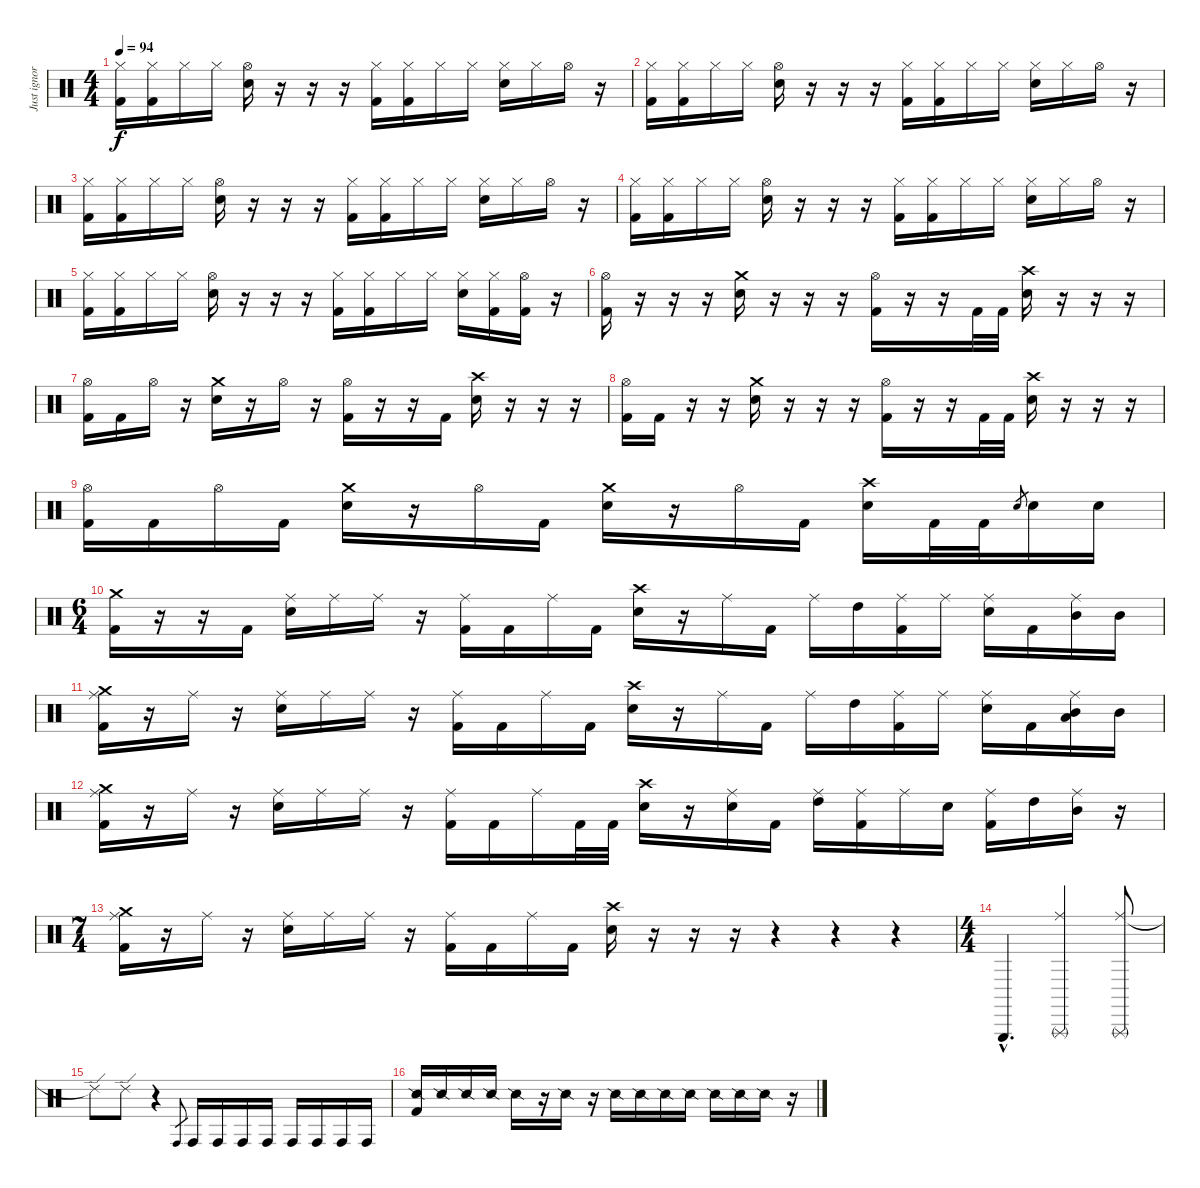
\track ("Just ignore this track" "Just ignor") {instrument percussion}
\staff {score}
\articulation defaults
\ts (4 4)
\tempo 94
\clef neutral
\ks c
("Hi-Hat (closed)" "Kick (hit) 2").16{dy f} ("Hi-Hat (closed)" "Kick (hit) 2").16 "Hi-Hat (closed)".16 "Hi-Hat (closed)".16 ("Hi-Hat (open)" "Electric Snare (hit)").16 r.16 r.16 r.16 ("Hi-Hat (closed)" "Kick (hit) 2").16 ("Hi-Hat (closed)" "Kick (hit) 2").16 "Hi-Hat (closed)".16 "Hi-Hat (closed)".16 ("Hi-Hat (closed)" "Electric Snare (hit)").16 "Hi-Hat (closed)".16 "Hi-Hat (open)".16 r.16 |
("Hi-Hat (closed)" "Kick (hit) 2").16 ("Hi-Hat (closed)" "Kick (hit) 2").16 "Hi-Hat (closed)".16 "Hi-Hat (closed)".16 ("Hi-Hat (open)" "Electric Snare (hit)").16 r.16 r.16 r.16 ("Hi-Hat (closed)" "Kick (hit) 2").16 ("Hi-Hat (closed)" "Kick (hit) 2").16 "Hi-Hat (closed)".16 "Hi-Hat (closed)".16 ("Hi-Hat (closed)" "Electric Snare (hit)").16 "Hi-Hat (closed)".16 "Hi-Hat (open)".16 r.16 |
("Hi-Hat (closed)" "Kick (hit) 2").16 ("Hi-Hat (closed)" "Kick (hit) 2").16 "Hi-Hat (closed)".16 "Hi-Hat (closed)".16 ("Hi-Hat (open)" "Electric Snare (hit)").16 r.16 r.16 r.16 ("Hi-Hat (closed)" "Kick (hit) 2").16 ("Hi-Hat (closed)" "Kick (hit) 2").16 "Hi-Hat (closed)".16 "Hi-Hat (closed)".16 ("Hi-Hat (closed)" "Electric Snare (hit)").16 "Hi-Hat (closed)".16 "Hi-Hat (open)".16 r.16 |
("Hi-Hat (closed)" "Kick (hit) 2").16 ("Hi-Hat (closed)" "Kick (hit) 2").16 "Hi-Hat (closed)".16 "Hi-Hat (closed)".16 ("Hi-Hat (open)" "Electric Snare (hit)").16 r.16 r.16 r.16 ("Hi-Hat (closed)" "Kick (hit) 2").16 ("Hi-Hat (closed)" "Kick (hit) 2").16 "Hi-Hat (closed)".16 "Hi-Hat (closed)".16 ("Hi-Hat (closed)" "Electric Snare (hit)").16 "Hi-Hat (closed)".16 "Hi-Hat (open)".16 r.16 |
("Hi-Hat (closed)" "Kick (hit) 2").16 ("Hi-Hat (closed)" "Kick (hit) 2").16 "Hi-Hat (closed)".16 "Hi-Hat (closed)".16 ("Hi-Hat (open)" "Electric Snare (hit)").16 r.16 r.16 r.16 ("Hi-Hat (closed)" "Kick (hit) 2").16 ("Hi-Hat (closed)" "Kick (hit) 2").16 "Hi-Hat (closed)".16 "Hi-Hat (closed)".16 ("Hi-Hat (closed)" "Electric Snare (hit)").16 ("Hi-Hat (closed)" "Kick (hit) 2").16 ("Hi-Hat (open)" "Kick (hit) 2").16 r.16 |
("Hi-Hat (open)" "Kick (hit) 2").16 r.16 r.16 r.16 ("Crash medium (hit)" "Electric Snare (hit)").16 r.16 r.16 r.16 ("Hi-Hat (open)" "Kick (hit) 2").16 r.16 r.16 "Kick (hit) 2".32 "Kick (hit) 2".32 ("Crash high (hit)" "Electric Snare (hit)").16 r.16 r.16 r.16 |
("Hi-Hat (open)" "Kick (hit) 2").16 "Kick (hit) 2".16 "Hi-Hat (open)".16 r.16 ("Crash medium (hit)" "Electric Snare (hit)").16 r.16 "Hi-Hat (open)".16 r.16 ("Hi-Hat (open)" "Kick (hit) 2").16 r.16 r.16 "Kick (hit) 2".16 ("Crash high (hit)" "Electric Snare (hit)").16 r.16 r.16 r.16 |
("Hi-Hat (open)" "Kick (hit) 2").16 "Kick (hit) 2".16 r.16 r.16 ("Crash medium (hit)" "Electric Snare (hit)").16 r.16 r.16 r.16 ("Hi-Hat (open)" "Kick (hit) 2").16 r.16 r.16 "Kick (hit) 2".32 "Kick (hit) 2".32 ("Crash high (hit)" "Electric Snare (hit)").16 r.16 r.16 r.16 |
("Hi-Hat (open)" "Kick (hit) 2").16 "Kick (hit) 2".16 "Hi-Hat (open)".16 "Kick (hit) 2".16 ("Crash medium (hit)" "Electric Snare (hit)").16 r.16 "Hi-Hat (open)".16 "Kick (hit) 2".16 ("Crash medium (hit)" "Electric Snare (hit)").16 r.16 "Hi-Hat (open)".16 "Kick (hit) 2".16 ("Crash high (hit)" "Electric Snare (hit)").16 "Kick (hit) 2".32 "Kick (hit) 2".32 "Electric Snare (hit)".8{gr} "Electric Snare (hit)".16 "Electric Snare (hit)".16 |
\ts (6 4)
("Crash medium (hit)" "Kick (hit) 2").16 r.16 r.16 "Kick (hit) 2".16 ("Ride (middle)" "Electric Snare (hit)").16 "Ride (middle)".16 "Ride (middle)".16 r.16 ("Ride (middle)" "Kick (hit) 2").16 "Kick (hit) 2".16 "Ride (middle)".16 "Kick (hit) 2".16 ("Crash high (hit)" "Electric Snare (hit)").16 r.16 "Ride (middle)".16 "Kick (hit) 2".16 "Ride (middle)".16 "High Tom (hit)".16 ("Ride (middle)" "Kick (hit) 2").16 "Ride (middle)".16 ("Ride (middle)" "Electric Snare (hit)").16 "Kick (hit) 2".16 ("Ride (middle)" "Mid Tom (hit)").16 "Mid Tom (hit)".16 |
("Crash medium (hit)" "Ride (middle)" "Kick (hit) 2").16 r.16 "Ride (middle)".16 r.16 ("Ride (middle)" "Electric Snare (hit)").16 "Ride (middle)".16 "Ride (middle)".16 r.16 ("Ride (middle)" "Kick (hit) 2").16 "Kick (hit) 2".16 "Ride (middle)".16 "Kick (hit) 2".16 ("Crash high (hit)" "Electric Snare (hit)").16 r.16 "Ride (middle)".16 "Kick (hit) 2".16 "Ride (middle)".16 "High Tom (hit)".16 ("Ride (middle)" "Kick (hit) 2").16 "Ride (middle)".16 ("Ride (middle)" "Electric Snare (hit)").16 "Kick (hit) 2".16 ("Ride (middle)" "Low Floor Tom (hit)" "Mid Tom (hit)").16 "Mid Tom (hit)".16 |
("Crash medium (hit)" "Ride (middle)" "Kick (hit) 2").16 r.16 "Ride (middle)".16 r.16 ("Ride (middle)" "Electric Snare (hit)").16 "Ride (middle)".16 "Ride (middle)".16 r.16 ("Ride (middle)" "Kick (hit) 2").16 "Kick (hit) 2".16 "Ride (middle)".16 "Kick (hit) 2".32 "Kick (hit) 2".32 ("Crash high (hit)" "Electric Snare (hit)").16 r.16 ("Ride (middle)" "Electric Snare (hit)").16 "Kick (hit) 2".16 ("Ride (middle)" "High Tom (hit)").16 ("Ride (middle)" "Kick (hit) 2").16 "Ride (middle)".16 "Electric Snare (hit)".16 ("Ride (middle)" "Kick (hit) 2").16 "High Tom (hit)".16 ("Ride (middle)" "Mid Tom (hit)").16 r.16 |
\ts (7 4)
("Crash medium (hit)" "Ride (middle)" "Kick (hit) 2").16 r.16 "Ride (middle)".16 r.16 ("Ride (middle)" "Electric Snare (hit)").16 "Ride (middle)".16 "Ride (middle)".16 r.16 ("Ride (middle)" "Kick (hit) 2").16 "Kick (hit) 2".16 "Ride (middle)".16 "Kick (hit) 2".16 ("Crash high (hit)" "Electric Snare (hit)").16 r.16 r.16 r.16 r.4 r.4 r.4 |
\ts (4 4)
"Triangle (hit)"{hac}.4{d} ("Ride (middle)" "Triangle (rnute)").2 ("Ride (middle)" "Triangle (rnute)").8 |
"Ride (edge) 2"{t}.8 "Ride (edge) 2".8 r.4 "Conga high (hit)".8{gr} "Conga high (hit)".16 "Conga high (hit)".16 "Conga high (hit)".16 "Conga high (hit)".16 "Conga high (hit)".16 "Conga high (hit)".16 "Conga high (hit)".16 "Conga high (hit)".16 |
("Snare (side stick) 2" "Kick (hit) 2").16 "Snare (side stick) 2".16 "Snare (side stick) 2".16 "Snare (side stick) 2".16 "Snare (side stick) 2".16 r.16 "Snare (side stick) 2".16 r.16 "Snare (side stick) 2".16 "Snare (side stick) 2".16 "Snare (side stick) 2".16 "Snare (side stick) 2".16 "Snare (side stick) 2".16 "Snare (side stick) 2".16 "Snare (side stick) 2".16 r.16
